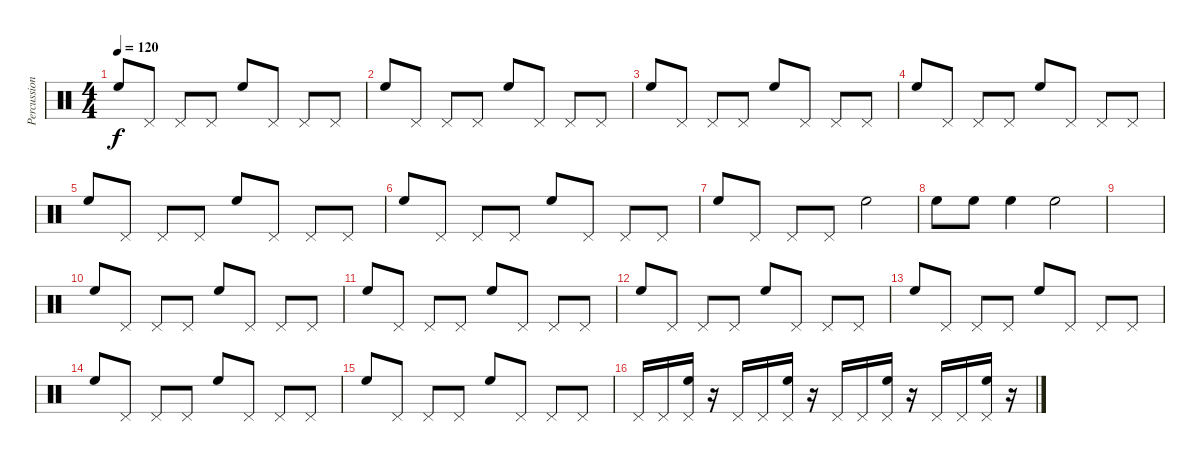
\track ("Percussion" "Percussion") {instrument percussion}
\staff {score}
\articulation defaults
\ts (4 4)
\tempo 120
\clef neutral
\ks c "High Floor Tom (hit)".8{dy f} "Pedal Hi-Hat (hit)".8 "Pedal Hi-Hat (hit)".8 "Pedal Hi-Hat (hit)".8 "High Floor Tom (hit)".8 "Pedal Hi-Hat (hit)".8 "Pedal Hi-Hat (hit)".8 "Pedal Hi-Hat (hit)".8
|
"High Floor Tom (hit)".8 "Pedal Hi-Hat (hit)".8 "Pedal Hi-Hat (hit)".8 "Pedal Hi-Hat (hit)".8 "High Floor Tom (hit)".8 "Pedal Hi-Hat (hit)".8 "Pedal Hi-Hat (hit)".8 "Pedal Hi-Hat (hit)".8 |
"High Floor Tom (hit)".8 "Pedal Hi-Hat (hit)".8 "Pedal Hi-Hat (hit)".8 "Pedal Hi-Hat (hit)".8 "High Floor Tom (hit)".8 "Pedal Hi-Hat (hit)".8 "Pedal Hi-Hat (hit)".8 "Pedal Hi-Hat (hit)".8 |
"High Floor Tom (hit)".8 "Pedal Hi-Hat (hit)".8 "Pedal Hi-Hat (hit)".8 "Pedal Hi-Hat (hit)".8 "High Floor Tom (hit)".8 "Pedal Hi-Hat (hit)".8 "Pedal Hi-Hat (hit)".8 "Pedal Hi-Hat (hit)".8 |
"High Floor Tom (hit)".8 "Pedal Hi-Hat (hit)".8 "Pedal Hi-Hat (hit)".8 "Pedal Hi-Hat (hit)".8 "High Floor Tom (hit)".8 "Pedal Hi-Hat (hit)".8 "Pedal Hi-Hat (hit)".8 "Pedal Hi-Hat (hit)".8 |
"High Floor Tom (hit)".8 "Pedal Hi-Hat (hit)".8 "Pedal Hi-Hat (hit)".8 "Pedal Hi-Hat (hit)".8 "High Floor Tom (hit)".8 "Pedal Hi-Hat (hit)".8 "Pedal Hi-Hat (hit)".8 "Pedal Hi-Hat (hit)".8 |
"High Floor Tom (hit)".8 "Pedal Hi-Hat (hit)".8 "Pedal Hi-Hat (hit)".8 "Pedal Hi-Hat (hit)".8 "High Floor Tom (hit)".2 |
"High Floor Tom (hit)".8 "High Floor Tom (hit)".8 "High Floor Tom (hit)".4 "High Floor Tom (hit)".2 |
|
"High Floor Tom (hit)".8 "Pedal Hi-Hat (hit)".8 "Pedal Hi-Hat (hit)".8 "Pedal Hi-Hat (hit)".8 "High Floor Tom (hit)".8 "Pedal Hi-Hat (hit)".8 "Pedal Hi-Hat (hit)".8 "Pedal Hi-Hat (hit)".8 |
"High Floor Tom (hit)".8 "Pedal Hi-Hat (hit)".8 "Pedal Hi-Hat (hit)".8 "Pedal Hi-Hat (hit)".8 "High Floor Tom (hit)".8 "Pedal Hi-Hat (hit)".8 "Pedal Hi-Hat (hit)".8 "Pedal Hi-Hat (hit)".8 |
"High Floor Tom (hit)".8 "Pedal Hi-Hat (hit)".8 "Pedal Hi-Hat (hit)".8 "Pedal Hi-Hat (hit)".8 "High Floor Tom (hit)".8 "Pedal Hi-Hat (hit)".8 "Pedal Hi-Hat (hit)".8 "Pedal Hi-Hat (hit)".8 |
"High Floor Tom (hit)".8 "Pedal Hi-Hat (hit)".8 "Pedal Hi-Hat (hit)".8 "Pedal Hi-Hat (hit)".8 "High Floor Tom (hit)".8 "Pedal Hi-Hat (hit)".8 "Pedal Hi-Hat (hit)".8 "Pedal Hi-Hat (hit)".8 |
"High Floor Tom (hit)".8 "Pedal Hi-Hat (hit)".8 "Pedal Hi-Hat (hit)".8 "Pedal Hi-Hat (hit)".8 "High Floor Tom (hit)".8 "Pedal Hi-Hat (hit)".8 "Pedal Hi-Hat (hit)".8 "Pedal Hi-Hat (hit)".8 |
"High Floor Tom (hit)".8 "Pedal Hi-Hat (hit)".8 "Pedal Hi-Hat (hit)".8 "Pedal Hi-Hat (hit)".8 "High Floor Tom (hit)".8 "Pedal Hi-Hat (hit)".8 "Pedal Hi-Hat (hit)".8 "Pedal Hi-Hat (hit)".8 |
"Pedal Hi-Hat (hit)".16 "Pedal Hi-Hat (hit)".16 ("Pedal Hi-Hat (hit)" "High Floor Tom (hit)").16 r.16 "Pedal Hi-Hat (hit)".16 "Pedal Hi-Hat (hit)".16 ("Pedal Hi-Hat (hit)" "High Floor Tom (hit)").16 r.16 "Pedal Hi-Hat (hit)".16 "Pedal Hi-Hat (hit)".16 ("Pedal Hi-Hat (hit)" "High Floor Tom (hit)").16 r.16 "Pedal Hi-Hat (hit)".16 "Pedal Hi-Hat (hit)".16 ("Pedal Hi-Hat (hit)" "High Floor Tom (hit)").16 r.16
